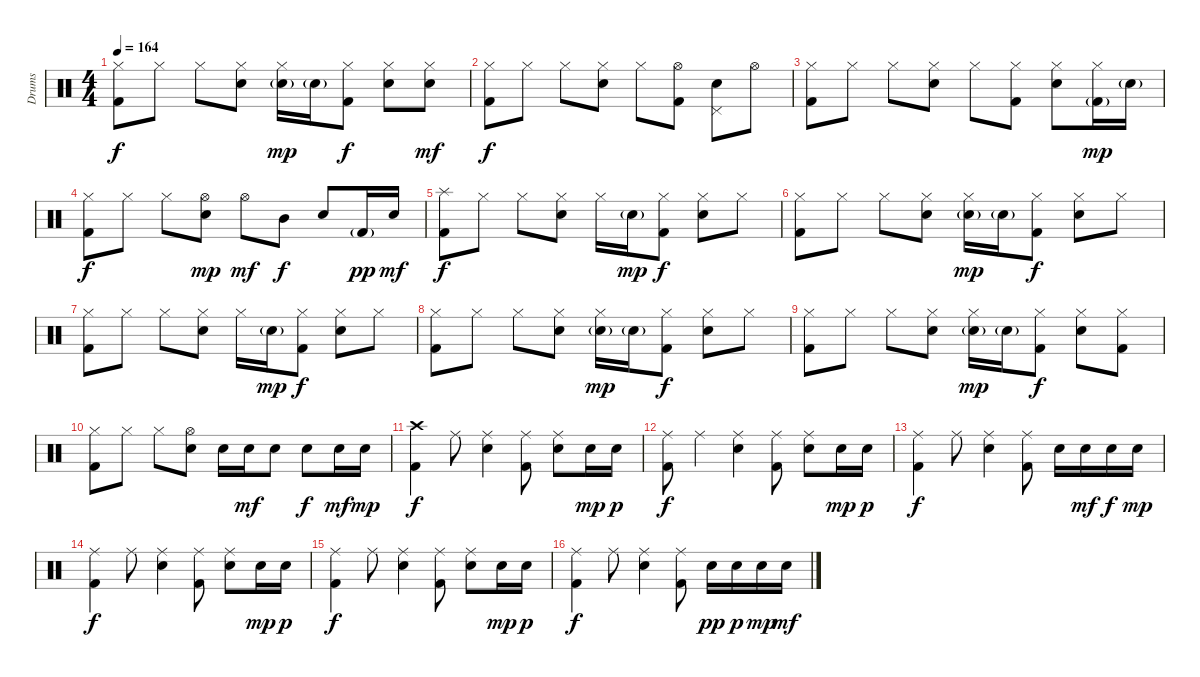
\track ("Drums" "Drums") {instrument percussion}
\staff {score}
\articulation defaults
\ts (4 4)
\tempo 164
\clef neutral
\ks c
("Hi-Hat (closed)" "Kick (hit) 2").8{dy f} "Hi-Hat (closed)".8 "Hi-Hat (closed)".8 ("Hi-Hat (closed)" "Electric Snare (hit)").8 ("Hi-Hat (closed)" "Electric Snare (hit)"{g}).16{dy mp} "Electric Snare (hit)"{g}.16 ("Hi-Hat (closed)" "Kick (hit) 2").8{dy f} ("Hi-Hat (closed)" "Electric Snare (hit)").8 ("Hi-Hat (closed)" "Electric Snare (hit)").8{dy mf} |
("Hi-Hat (closed)" "Kick (hit) 2").8{dy f} "Hi-Hat (closed)".8 "Hi-Hat (closed)".8 ("Hi-Hat (closed)" "Electric Snare (hit)").8 "Hi-Hat (closed)".8 ("Hi-Hat (open)" "Kick (hit) 2").8 ("Pedal Hi-Hat (hit)" "Electric Snare (hit)").8 "Hi-Hat (open)".8 |
("Hi-Hat (closed)" "Kick (hit) 2").8 "Hi-Hat (closed)".8 "Hi-Hat (closed)".8 ("Hi-Hat (closed)" "Electric Snare (hit)").8 "Hi-Hat (closed)".8 ("Hi-Hat (closed)" "Kick (hit) 2").8 ("Hi-Hat (closed)" "Electric Snare (hit)").8 ("Hi-Hat (closed)" "Kick (hit) 2"{g}).16{dy mp} "Electric Snare (hit)"{g}.16 |
("Hi-Hat (closed)" "Kick (hit) 2").8{dy f} "Hi-Hat (closed)".8 "Hi-Hat (closed)".8 ("Hi-Hat (open)" "Electric Snare (hit)").8{dy mp} "Hi-Hat (open)".8{dy mf} "Mid Tom (hit)".8{dy f} "Electric Snare (hit)".8 "Kick (hit) 2"{g}.16{dy pp} "Electric Snare (hit)".16{dy mf} |
("Splash (hit)" "Kick (hit) 2").8{dy f} "Hi-Hat (closed)".8 "Hi-Hat (closed)".8 ("Hi-Hat (closed)" "Electric Snare (hit)").8 "Hi-Hat (closed)".16 "Electric Snare (hit)"{g}.16{dy mp} ("Hi-Hat (closed)" "Kick (hit) 2").8{dy f} ("Hi-Hat (closed)" "Electric Snare (hit)").8 "Hi-Hat (closed)".8 |
("Hi-Hat (closed)" "Kick (hit) 2").8 "Hi-Hat (closed)".8 "Hi-Hat (closed)".8 ("Hi-Hat (closed)" "Electric Snare (hit)").8 ("Hi-Hat (closed)" "Electric Snare (hit)"{g}).16{dy mp} "Electric Snare (hit)"{g}.16 ("Hi-Hat (closed)" "Kick (hit) 2").8{dy f} ("Hi-Hat (closed)" "Electric Snare (hit)").8 "Hi-Hat (closed)".8 |
("Hi-Hat (closed)" "Kick (hit) 2").8 "Hi-Hat (closed)".8 "Hi-Hat (closed)".8 ("Hi-Hat (closed)" "Electric Snare (hit)").8 "Hi-Hat (closed)".16 "Electric Snare (hit)"{g}.16{dy mp} ("Hi-Hat (closed)" "Kick (hit) 2").8{dy f} ("Hi-Hat (closed)" "Electric Snare (hit)").8 "Hi-Hat (closed)".8 |
("Hi-Hat (closed)" "Kick (hit) 2").8 "Hi-Hat (closed)".8 "Hi-Hat (closed)".8 ("Hi-Hat (closed)" "Electric Snare (hit)").8 ("Hi-Hat (closed)" "Electric Snare (hit)"{g}).16{dy mp} "Electric Snare (hit)"{g}.16 ("Hi-Hat (closed)" "Kick (hit) 2").8{dy f} ("Hi-Hat (closed)" "Electric Snare (hit)").8 "Hi-Hat (closed)".8 |
("Hi-Hat (closed)" "Kick (hit) 2").8 "Hi-Hat (closed)".8 "Hi-Hat (closed)".8 ("Hi-Hat (closed)" "Electric Snare (hit)").8 ("Hi-Hat (closed)" "Electric Snare (hit)"{g}).16{dy mp} "Electric Snare (hit)"{g}.16 ("Hi-Hat (closed)" "Kick (hit) 2").8{dy f} ("Hi-Hat (closed)" "Electric Snare (hit)").8 ("Hi-Hat (closed)" "Kick (hit) 2").8 |
("Hi-Hat (closed)" "Kick (hit) 2").8 "Hi-Hat (closed)".8 "Hi-Hat (closed)".8 ("Hi-Hat (open)" "Electric Snare (hit)").8 "Electric Snare (hit)".16 "Electric Snare (hit)".16{dy mf} "Electric Snare (hit)".8 "Electric Snare (hit)".8{dy f} "Electric Snare (hit)".16{dy mf} "Electric Snare (hit)".16{dy mp} |
("Crash high (hit)" "Kick (hit) 2").4{dy f} "Ride (middle)".8 ("Ride (middle)" "Electric Snare (hit)").4 ("Ride (middle)" "Kick (hit) 2").8 ("Ride (middle)" "Electric Snare (hit)").8 "Electric Snare (hit)".16{dy mp} "Electric Snare (hit)".16{dy p} |
("Ride (middle)" "Kick (hit) 2").8{dy f} "Ride (middle)".4 ("Ride (middle)" "Electric Snare (hit)").4 ("Ride (middle)" "Kick (hit) 2").8 ("Ride (middle)" "Electric Snare (hit)").8 "Electric Snare (hit)".16{dy mp} "Electric Snare (hit)".16{dy p} |
("Ride (middle)" "Kick (hit) 2").4{dy f} "Ride (middle)".8 ("Ride (middle)" "Electric Snare (hit)").4 ("Ride (middle)" "Kick (hit) 2").8 "Electric Snare (hit)".16 "Electric Snare (hit)".16{dy mf} "Electric Snare (hit)".16{dy f} "Electric Snare (hit)".16{dy mp} |
("Ride (middle)" "Kick (hit) 2").4{dy f} "Ride (middle)".8 ("Ride (middle)" "Electric Snare (hit)").4 ("Ride (middle)" "Kick (hit) 2").8 ("Ride (middle)" "Electric Snare (hit)").8 "Electric Snare (hit)".16{dy mp} "Electric Snare (hit)".16{dy p} |
("Ride (middle)" "Kick (hit) 2").4{dy f} "Ride (middle)".8 ("Ride (middle)" "Electric Snare (hit)").4 ("Ride (middle)" "Kick (hit) 2").8 ("Ride (middle)" "Electric Snare (hit)").8 "Electric Snare (hit)".16{dy mp} "Electric Snare (hit)".16{dy p} |
("Ride (middle)" "Kick (hit) 2").4{dy f} "Ride (middle)".8 ("Ride (middle)" "Electric Snare (hit)").4 ("Ride (middle)" "Kick (hit) 2").8 "Electric Snare (hit)".16{dy pp} "Electric Snare (hit)".16{dy p} "Electric Snare (hit)".16{dy mp} "Electric Snare (hit)".16{dy mf}
